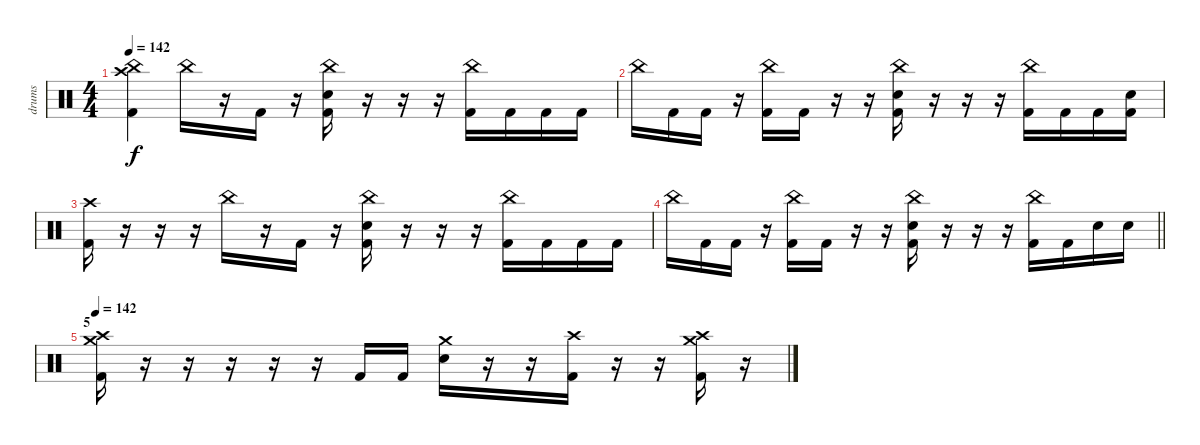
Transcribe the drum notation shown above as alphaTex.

\track ("drums" "drums") {instrument percussion}
\staff {score}
\articulation defaults
\ts (4 4)
\tempo 142
\clef neutral
\ks c
("China (hit)" "Crash high (hit)" "Kick (hit) 2").4{dy f} "China (hit)".16 r.16 "Kick (hit) 2".16 r.16 ("China (hit)" "Electric Snare (hit)" "Kick (hit) 2").16 r.16 r.16 r.16 ("China (hit)" "Kick (hit) 2").16 "Kick (hit) 2".16 "Kick (hit) 2".16 "Kick (hit) 2".16 |
"China (hit)".16 "Kick (hit) 2".16 "Kick (hit) 2".16 r.16 ("China (hit)" "Kick (hit) 2").16 "Kick (hit) 2".16 r.16 r.16 ("China (hit)" "Electric Snare (hit)" "Kick (hit) 2").16 r.16 r.16 r.16 ("China (hit)" "Kick (hit) 2").16 "Kick (hit) 2".16 "Kick (hit) 2".16 ("Electric Snare (hit)" "Kick (hit) 2").16 |
("Crash high (hit)" "Kick (hit) 2").16 r.16 r.16 r.16 "China (hit)".16 r.16 "Kick (hit) 2".16 r.16 ("China (hit)" "Electric Snare (hit)" "Kick (hit) 2").16 r.16 r.16 r.16 ("China (hit)" "Kick (hit) 2").16 "Kick (hit) 2".16 "Kick (hit) 2".16 "Kick (hit) 2".16 |
\barLineRight lightlight "China (hit)".16 "Kick (hit) 2".16 "Kick (hit) 2".16
r.16 ("China (hit)" "Kick (hit) 2").16 "Kick (hit) 2".16 r.16 r.16 ("China (hit)" "Electric Snare (hit)" "Kick (hit) 2").16 r.16 r.16 r.16 ("China (hit)" "Kick (hit) 2").16 "Kick (hit) 2".16 "Electric Snare (hit)".16 "Electric Snare (hit)".16 |
\section ("" "5")
\tempo 142
("Crash medium (hit)" "Crash high (hit)" "Kick (hit) 2").16 r.16 r.16 r.16 r.16 r.16 "Kick (hit) 2".16 "Kick (hit) 2".16 ("Crash medium (hit)" "Electric Snare (hit)").16 r.16 r.16 ("Crash high (hit)" "Kick (hit) 2").16 r.16 r.16 ("Crash medium (hit)" "Crash high (hit)" "Kick (hit) 2").16 r.16
